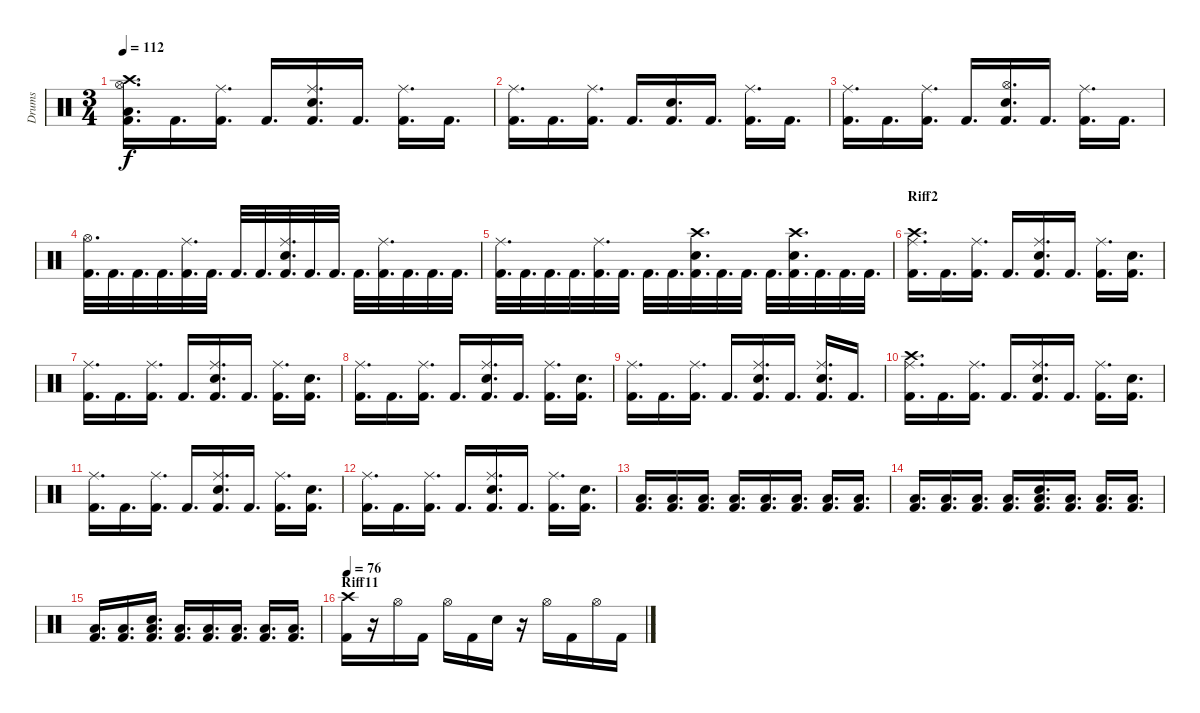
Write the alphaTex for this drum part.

\track ("Drums" "Drums") {instrument percussion}
\staff {score}
\articulation defaults
\ts (3 4)
\tempo 112
\clef neutral
\ks c
("Crash high (hit)" "Low Floor Tom (hit)" "Kick (hit) 2" "Hi-Hat (open)").16{d dy f} "Kick (hit) 2".16{d} ("Ride (middle)" "Kick (hit) 2").16{d} "Kick (hit) 2".16{d} ("Ride (middle)" "Kick (hit) 2" "Snare (hit) 2").16{d} "Kick (hit) 2".16{d} ("Ride (middle)" "Kick (hit) 2").16{d} "Kick (hit) 2".16{d} |
("Ride (middle)" "Kick (hit) 2").16{d} "Kick (hit) 2".16{d} ("Ride (middle)" "Kick (hit) 2").16{d} "Kick (hit) 2".16{d} ("Kick (hit) 2" "Snare (hit) 2").16{d} "Kick (hit) 2".16{d} ("Ride (middle)" "Kick (hit) 2").16{d} "Kick (hit) 2".16{d} |
("Ride (middle)" "Kick (hit) 2").16{d} "Kick (hit) 2".16{d} ("Ride (middle)" "Kick (hit) 2").16{d} "Kick (hit) 2".16{d} ("Hi-Hat (open)" "Kick (hit) 2" "Snare (hit) 2").16{d} "Kick (hit) 2".16{d} ("Ride (middle)" "Kick (hit) 2").16{d} "Kick (hit) 2".16{d} |
("Hi-Hat (open)" "Kick (hit) 2").32{d} "Kick (hit) 2".32{d} "Kick (hit) 2".32{d} "Kick (hit) 2".32{d} ("Ride (middle)" "Kick (hit) 2").32{d} "Kick (hit) 2".32{d} "Kick (hit) 2".32{d} "Kick (hit) 2".32{d} ("Ride (middle)" "Kick (hit) 2" "Snare (hit) 2").32{d} "Kick (hit) 2".32{d} "Kick (hit) 2".32{d} "Kick (hit) 2".32{d} ("Ride (middle)" "Kick (hit) 2").32{d} "Kick (hit) 2".32{d} "Kick (hit) 2".32{d} "Kick (hit) 2".32{d} |
("Ride (middle)" "Kick (hit) 2").32{d} "Kick (hit) 2".32{d} "Kick (hit) 2".32{d} "Kick (hit) 2".32{d} ("Ride (middle)" "Kick (hit) 2").32{d} "Kick (hit) 2".32{d} "Kick (hit) 2".32{d} "Kick (hit) 2".32{d} ("Crash high (hit)" "Kick (hit) 2" "Snare (hit) 2").32{d} "Kick (hit) 2".32{d} "Kick (hit) 2".32{d} "Kick (hit) 2".32{d} ("Crash high (hit)" "Kick (hit) 2" "Snare (hit) 2").32{d} "Kick (hit) 2".32{d} "Kick (hit) 2".32{d} "Kick (hit) 2".32{d} |
\section ("" "Riff2")
("Crash high (hit)" "Ride (middle)" "Kick (hit) 2").16{d} "Kick (hit) 2".16{d} ("Ride (middle)" "Kick (hit) 2").16{d} "Kick (hit) 2".16{d} ("Ride (middle)" "Kick (hit) 2" "Snare (hit) 2").16{d} "Kick (hit) 2".16{d} ("Ride (middle)" "Kick (hit) 2").16{d} ("Kick (hit) 2" "Snare (hit) 2").16{d} |
("Ride (middle)" "Kick (hit) 2").16{d} "Kick (hit) 2".16{d} ("Ride (middle)" "Kick (hit) 2").16{d} "Kick (hit) 2".16{d} ("Ride (middle)" "Kick (hit) 2" "Snare (hit) 2").16{d} "Kick (hit) 2".16{d} ("Ride (middle)" "Kick (hit) 2").16{d} ("Kick (hit) 2" "Snare (hit) 2").16{d} |
("Ride (middle)" "Kick (hit) 2").16{d} "Kick (hit) 2".16{d} ("Ride (middle)" "Kick (hit) 2").16{d} "Kick (hit) 2".16{d} ("Ride (middle)" "Kick (hit) 2" "Snare (hit) 2").16{d} "Kick (hit) 2".16{d} ("Ride (middle)" "Kick (hit) 2").16{d} ("Kick (hit) 2" "Snare (hit) 2").16{d} |
("Ride (middle)" "Kick (hit) 2").16{d} "Kick (hit) 2".16{d} ("Ride (middle)" "Kick (hit) 2").16{d} "Kick (hit) 2".16{d} ("Ride (middle)" "Kick (hit) 2" "Snare (hit) 2").16{d} "Kick (hit) 2".16{d} ("Ride (middle)" "Kick (hit) 2" "Snare (hit) 2").16{d} "Kick (hit) 2".16{d} |
("Crash high (hit)" "Ride (middle)" "Kick (hit) 2").16{d} "Kick (hit) 2".16{d} ("Ride (middle)" "Kick (hit) 2").16{d} "Kick (hit) 2".16{d} ("Ride (middle)" "Kick (hit) 2" "Snare (hit) 2").16{d} "Kick (hit) 2".16{d} ("Ride (middle)" "Kick (hit) 2").16{d} ("Kick (hit) 2" "Snare (hit) 2").16{d} |
("Ride (middle)" "Kick (hit) 2").16{d} "Kick (hit) 2".16{d} ("Ride (middle)" "Kick (hit) 2").16{d} "Kick (hit) 2".16{d} ("Ride (middle)" "Kick (hit) 2" "Snare (hit) 2").16{d} "Kick (hit) 2".16{d} ("Ride (middle)" "Kick (hit) 2").16{d} ("Kick (hit) 2" "Snare (hit) 2").16{d} |
("Ride (middle)" "Kick (hit) 2").16{d} "Kick (hit) 2".16{d} ("Ride (middle)" "Kick (hit) 2").16{d} "Kick (hit) 2".16{d} ("Ride (middle)" "Kick (hit) 2" "Snare (hit) 2").16{d} "Kick (hit) 2".16{d} ("Ride (middle)" "Kick (hit) 2").16{d} ("Kick (hit) 2" "Snare (hit) 2").16{d} |
("Low Tom (hit)" "Kick (hit) 2").16{d} ("Low Tom (hit)" "Kick (hit) 2").16{d} ("Low Tom (hit)" "Kick (hit) 2").16{d} ("Low Tom (hit)" "Kick (hit) 2").16{d} ("Low Tom (hit)" "Kick (hit) 2").16{d} ("Low Tom (hit)" "Kick (hit) 2").16{d} ("Low Tom (hit)" "Kick (hit) 2").16{d} ("Low Tom (hit)" "Kick (hit) 2").16{d} |
("Low Tom (hit)" "Kick (hit) 2").16{d} ("Low Tom (hit)" "Kick (hit) 2").16{d} ("Low Tom (hit)" "Kick (hit) 2").16{d} ("Low Tom (hit)" "Kick (hit) 2").16{d} ("Low Tom (hit)" "Kick (hit) 2" "Snare (hit) 2").16{d} ("Low Tom (hit)" "Kick (hit) 2").16{d} ("Low Tom (hit)" "Kick (hit) 2").16{d} ("Low Tom (hit)" "Kick (hit) 2").16{d} |
("Low Tom (hit)" "Kick (hit) 2").16{d} ("Low Tom (hit)" "Kick (hit) 2").16{d} ("Low Tom (hit)" "Kick (hit) 2" "Snare (hit) 2").16{d} ("Low Tom (hit)" "Kick (hit) 2").16{d} ("Low Tom (hit)" "Kick (hit) 2").16{d} ("Low Tom (hit)" "Kick (hit) 2").16{d} ("Low Tom (hit)" "Kick (hit) 2").16{d} ("Low Tom (hit)" "Kick (hit) 2").16{d} |
\section ("" "Riff11")
\tempo 76
("Crash high (hit)" "Kick (hit) 2").16 r.16 "Hi-Hat (open)".16 "Kick (hit) 2".16 "Hi-Hat (open)".16 "Kick (hit) 2".16 "Snare (hit) 2".16 r.16 "Hi-Hat (open)".16 "Kick (hit) 2".16 "Hi-Hat (open)".16 "Kick (hit) 2".16
